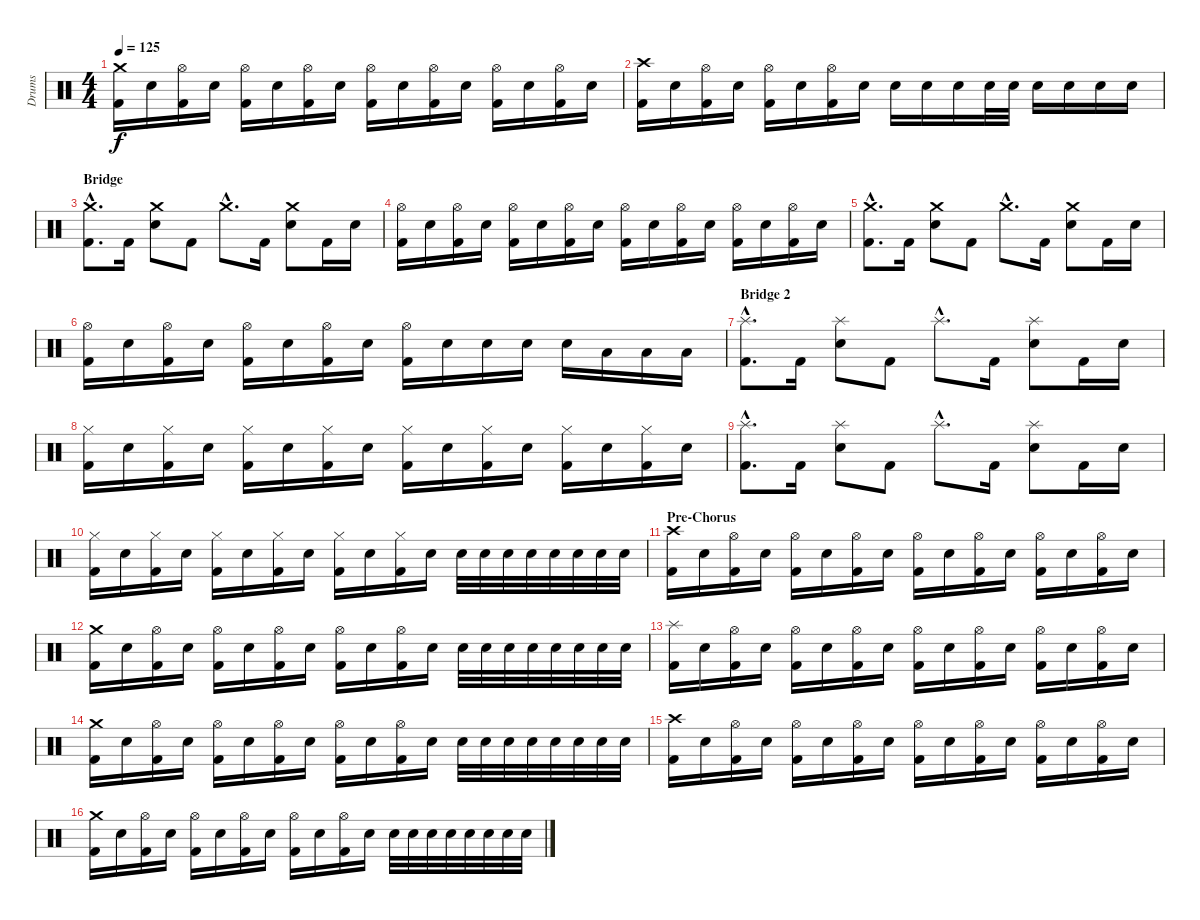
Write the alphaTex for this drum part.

\track ("Drums" "Drums") {instrument percussion}
\staff {score}
\articulation defaults
\ts (4 4)
\tempo 125
\clef neutral
\ks c
("Crash medium (hit)" "Kick (hit) 2").16{dy f} "Electric Snare (hit)".16 ("Hi-Hat (open)" "Kick (hit) 2").16 "Electric Snare (hit)".16 ("Hi-Hat (open)" "Kick (hit) 2").16 "Electric Snare (hit)".16 ("Hi-Hat (open)" "Kick (hit) 2").16 "Electric Snare (hit)".16 ("Hi-Hat (open)" "Kick (hit) 2").16 "Electric Snare (hit)".16 ("Hi-Hat (open)" "Kick (hit) 2").16 "Electric Snare (hit)".16 ("Hi-Hat (open)" "Kick (hit) 2").16 "Electric Snare (hit)".16 ("Hi-Hat (open)" "Kick (hit) 2").16 "Electric Snare (hit)".16 |
("Crash high (hit)" "Kick (hit) 2").16 "Electric Snare (hit)".16 ("Hi-Hat (open)" "Kick (hit) 2").16 "Electric Snare (hit)".16 ("Hi-Hat (open)" "Kick (hit) 2").16 "Electric Snare (hit)".16 ("Hi-Hat (open)" "Kick (hit) 2").16 "Electric Snare (hit)".16 "Electric Snare (hit)".16 "Electric Snare (hit)".16 "Electric Snare (hit)".16 "Electric Snare (hit)".32 "Electric Snare (hit)".32 "Electric Snare (hit)".16 "Electric Snare (hit)".16 "Electric Snare (hit)".16 "Electric Snare (hit)".16 |
\section ("" "Bridge")
("Crash medium (hit)"{hac} "Kick (hit) 2"{hac}).8{d} "Kick (hit) 2".16 ("Crash medium (hit)" "Electric Snare (hit)").8 "Kick (hit) 2".8 "Crash medium (hit)"{hac}.8{d} "Kick (hit) 2".16 ("Crash medium (hit)" "Electric Snare (hit)").8 "Kick (hit) 2".16 "Electric Snare (hit)".16 |
("Hi-Hat (open)" "Kick (hit) 2").16 "Electric Snare (hit)".16 ("Hi-Hat (open)" "Kick (hit) 2").16 "Electric Snare (hit)".16 ("Hi-Hat (open)" "Kick (hit) 2").16 "Electric Snare (hit)".16 ("Hi-Hat (open)" "Kick (hit) 2").16 "Electric Snare (hit)".16 ("Hi-Hat (open)" "Kick (hit) 2").16 "Electric Snare (hit)".16 ("Hi-Hat (open)" "Kick (hit) 2").16 "Electric Snare (hit)".16 ("Hi-Hat (open)" "Kick (hit) 2").16 "Electric Snare (hit)".16 ("Hi-Hat (open)" "Kick (hit) 2").16 "Electric Snare (hit)".16 |
("Crash medium (hit)"{hac} "Kick (hit) 2"{hac}).8{d} "Kick (hit) 2".16 ("Crash medium (hit)" "Electric Snare (hit)").8 "Kick (hit) 2".8 "Crash medium (hit)"{hac}.8{d} "Kick (hit) 2".16 ("Crash medium (hit)" "Electric Snare (hit)").8 "Kick (hit) 2".16 "Electric Snare (hit)".16 |
("Hi-Hat (open)" "Kick (hit) 2").16 "Electric Snare (hit)".16 ("Hi-Hat (open)" "Kick (hit) 2").16 "Electric Snare (hit)".16 ("Hi-Hat (open)" "Kick (hit) 2").16 "Electric Snare (hit)".16 ("Hi-Hat (open)" "Kick (hit) 2").16 "Electric Snare (hit)".16 ("Hi-Hat (open)" "Kick (hit) 2").16 "Electric Snare (hit)".16 "Electric Snare (hit)".16 "Electric Snare (hit)".16 "Electric Snare (hit)".16 "Low Tom (hit)".16 "Low Tom (hit)".16 "Low Tom (hit)".16 |
\section ("" "Bridge 2")
("Splash (hit)"{hac} "Kick (hit) 2"{hac}).8{d} "Kick (hit) 2".16 ("Splash (hit)" "Electric Snare (hit)").8 "Kick (hit) 2".8 "Splash (hit)"{hac}.8{d} "Kick (hit) 2".16 ("Splash (hit)" "Electric Snare (hit)").8 "Kick (hit) 2".16 "Electric Snare (hit)".16 |
("Hi-Hat (closed)" "Kick (hit) 2").16 "Electric Snare (hit)".16 ("Hi-Hat (closed)" "Kick (hit) 2").16 "Electric Snare (hit)".16 ("Hi-Hat (closed)" "Kick (hit) 2").16 "Electric Snare (hit)".16 ("Hi-Hat (closed)" "Kick (hit) 2").16 "Electric Snare (hit)".16 ("Hi-Hat (closed)" "Kick (hit) 2").16 "Electric Snare (hit)".16 ("Hi-Hat (closed)" "Kick (hit) 2").16 "Electric Snare (hit)".16 ("Hi-Hat (closed)" "Kick (hit) 2").16 "Electric Snare (hit)".16 ("Hi-Hat (closed)" "Kick (hit) 2").16 "Electric Snare (hit)".16 |
("Splash (hit)"{hac} "Kick (hit) 2"{hac}).8{d} "Kick (hit) 2".16 ("Splash (hit)" "Electric Snare (hit)").8 "Kick (hit) 2".8 "Splash (hit)"{hac}.8{d} "Kick (hit) 2".16 ("Splash (hit)" "Electric Snare (hit)").8 "Kick (hit) 2".16 "Electric Snare (hit)".16 |
("Hi-Hat (closed)" "Kick (hit) 2").16 "Electric Snare (hit)".16 ("Hi-Hat (closed)" "Kick (hit) 2").16 "Electric Snare (hit)".16 ("Hi-Hat (closed)" "Kick (hit) 2").16 "Electric Snare (hit)".16 ("Hi-Hat (closed)" "Kick (hit) 2").16 "Electric Snare (hit)".16 ("Hi-Hat (closed)" "Kick (hit) 2").16 "Electric Snare (hit)".16 ("Hi-Hat (closed)" "Kick (hit) 2").16 "Electric Snare (hit)".16 "Electric Snare (hit)".32 "Electric Snare (hit)".32 "Electric Snare (hit)".32 "Electric Snare (hit)".32 "Electric Snare (hit)".32 "Electric Snare (hit)".32 "Electric Snare (hit)".32 "Electric Snare (hit)".32 |
\section ("" "Pre-Chorus")
("Crash high (hit)" "Kick (hit) 2").16 "Electric Snare (hit)".16 ("Hi-Hat (open)" "Kick (hit) 2").16 "Electric Snare (hit)".16 ("Hi-Hat (open)" "Kick (hit) 2").16 "Electric Snare (hit)".16 ("Hi-Hat (open)" "Kick (hit) 2").16 "Electric Snare (hit)".16 ("Hi-Hat (open)" "Kick (hit) 2").16 "Electric Snare (hit)".16 ("Hi-Hat (open)" "Kick (hit) 2").16 "Electric Snare (hit)".16 ("Hi-Hat (open)" "Kick (hit) 2").16 "Electric Snare (hit)".16 ("Hi-Hat (open)" "Kick (hit) 2").16 "Electric Snare (hit)".16 |
("Crash medium (hit)" "Kick (hit) 2").16 "Electric Snare (hit)".16 ("Hi-Hat (open)" "Kick (hit) 2").16 "Electric Snare (hit)".16 ("Hi-Hat (open)" "Kick (hit) 2").16 "Electric Snare (hit)".16 ("Hi-Hat (open)" "Kick (hit) 2").16 "Electric Snare (hit)".16 ("Hi-Hat (open)" "Kick (hit) 2").16 "Electric Snare (hit)".16 ("Hi-Hat (open)" "Kick (hit) 2").16 "Electric Snare (hit)".16 "Electric Snare (hit)".32 "Electric Snare (hit)".32 "Electric Snare (hit)".32 "Electric Snare (hit)".32 "Electric Snare (hit)".32 "Electric Snare (hit)".32 "Electric Snare (hit)".32 "Electric Snare (hit)".32 |
("Splash (hit)" "Kick (hit) 2").16 "Electric Snare (hit)".16 ("Hi-Hat (open)" "Kick (hit) 2").16 "Electric Snare (hit)".16 ("Hi-Hat (open)" "Kick (hit) 2").16 "Electric Snare (hit)".16 ("Hi-Hat (open)" "Kick (hit) 2").16 "Electric Snare (hit)".16 ("Hi-Hat (open)" "Kick (hit) 2").16 "Electric Snare (hit)".16 ("Hi-Hat (open)" "Kick (hit) 2").16 "Electric Snare (hit)".16 ("Hi-Hat (open)" "Kick (hit) 2").16 "Electric Snare (hit)".16 ("Hi-Hat (open)" "Kick (hit) 2").16 "Electric Snare (hit)".16 |
("Crash medium (hit)" "Kick (hit) 2").16 "Electric Snare (hit)".16 ("Hi-Hat (open)" "Kick (hit) 2").16 "Electric Snare (hit)".16 ("Hi-Hat (open)" "Kick (hit) 2").16 "Electric Snare (hit)".16 ("Hi-Hat (open)" "Kick (hit) 2").16 "Electric Snare (hit)".16 ("Hi-Hat (open)" "Kick (hit) 2").16 "Electric Snare (hit)".16 ("Hi-Hat (open)" "Kick (hit) 2").16 "Electric Snare (hit)".16 "Electric Snare (hit)".32 "Electric Snare (hit)".32 "Electric Snare (hit)".32 "Electric Snare (hit)".32 "Electric Snare (hit)".32 "Electric Snare (hit)".32 "Electric Snare (hit)".32 "Electric Snare (hit)".32 |
("Crash high (hit)" "Kick (hit) 2").16 "Electric Snare (hit)".16 ("Hi-Hat (open)" "Kick (hit) 2").16 "Electric Snare (hit)".16 ("Hi-Hat (open)" "Kick (hit) 2").16 "Electric Snare (hit)".16 ("Hi-Hat (open)" "Kick (hit) 2").16 "Electric Snare (hit)".16 ("Hi-Hat (open)" "Kick (hit) 2").16 "Electric Snare (hit)".16 ("Hi-Hat (open)" "Kick (hit) 2").16 "Electric Snare (hit)".16 ("Hi-Hat (open)" "Kick (hit) 2").16 "Electric Snare (hit)".16 ("Hi-Hat (open)" "Kick (hit) 2").16 "Electric Snare (hit)".16 |
("Crash medium (hit)" "Kick (hit) 2").16 "Electric Snare (hit)".16 ("Hi-Hat (open)" "Kick (hit) 2").16 "Electric Snare (hit)".16 ("Hi-Hat (open)" "Kick (hit) 2").16 "Electric Snare (hit)".16 ("Hi-Hat (open)" "Kick (hit) 2").16 "Electric Snare (hit)".16 ("Hi-Hat (open)" "Kick (hit) 2").16 "Electric Snare (hit)".16 ("Hi-Hat (open)" "Kick (hit) 2").16 "Electric Snare (hit)".16 "Electric Snare (hit)".32 "Electric Snare (hit)".32 "Electric Snare (hit)".32 "Electric Snare (hit)".32 "Electric Snare (hit)".32 "Electric Snare (hit)".32 "Electric Snare (hit)".32 "Electric Snare (hit)".32
